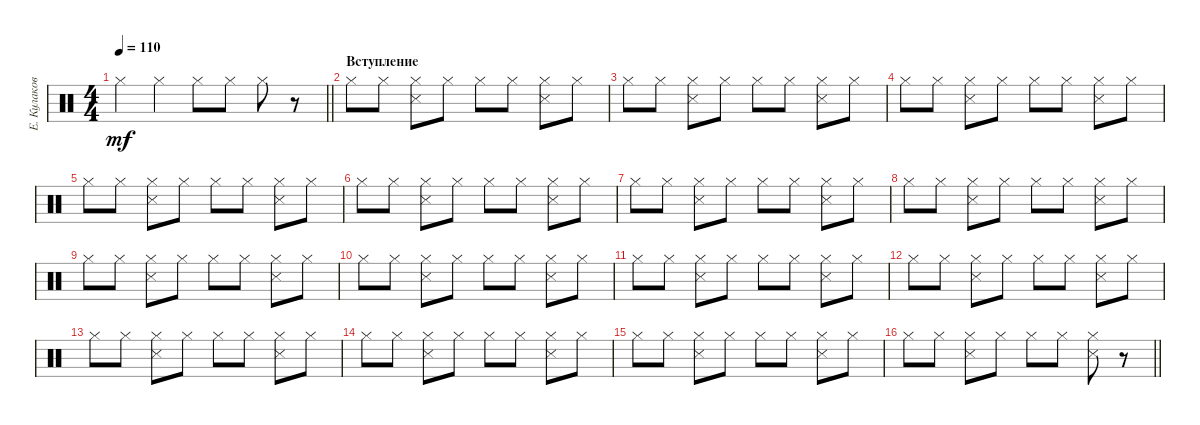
\track ("Е. Кулаков" "Е. Кулаков") {instrument percussion}
\staff {score}
\articulation defaults
\ts (4 4)
\tempo 110
\clef neutral
\barLineRight lightlight
\ks c "Hi-Hat (closed)".4{dy mf} "Hi-Hat (closed)".4 "Hi-Hat (closed)".8 "Hi-Hat (closed)".8 "Hi-Hat (closed)".8
r.8 |
\section ("" "Вступление")
"Hi-Hat (closed)".8 "Hi-Hat (closed)".8 ("Hi-Hat (closed)" "Snare (side stick) 3").8 "Hi-Hat (closed)".8 "Hi-Hat (closed)".8 "Hi-Hat (closed)".8 ("Hi-Hat (closed)" "Snare (side stick) 3").8 "Hi-Hat (closed)".8 |
"Hi-Hat (closed)".8 "Hi-Hat (closed)".8 ("Hi-Hat (closed)" "Snare (side stick) 3").8 "Hi-Hat (closed)".8 "Hi-Hat (closed)".8 "Hi-Hat (closed)".8 ("Hi-Hat (closed)" "Snare (side stick) 3").8 "Hi-Hat (closed)".8 |
"Hi-Hat (closed)".8 "Hi-Hat (closed)".8 ("Hi-Hat (closed)" "Snare (side stick) 3").8 "Hi-Hat (closed)".8 "Hi-Hat (closed)".8 "Hi-Hat (closed)".8 ("Hi-Hat (closed)" "Snare (side stick) 3").8 "Hi-Hat (closed)".8 |
"Hi-Hat (closed)".8 "Hi-Hat (closed)".8 ("Hi-Hat (closed)" "Snare (side stick) 3").8 "Hi-Hat (closed)".8 "Hi-Hat (closed)".8 "Hi-Hat (closed)".8 ("Hi-Hat (closed)" "Snare (side stick) 3").8 "Hi-Hat (closed)".8 |
"Hi-Hat (closed)".8 "Hi-Hat (closed)".8 ("Hi-Hat (closed)" "Snare (side stick) 3").8 "Hi-Hat (closed)".8 "Hi-Hat (closed)".8 "Hi-Hat (closed)".8 ("Hi-Hat (closed)" "Snare (side stick) 3").8 "Hi-Hat (closed)".8 |
"Hi-Hat (closed)".8 "Hi-Hat (closed)".8 ("Hi-Hat (closed)" "Snare (side stick) 3").8 "Hi-Hat (closed)".8 "Hi-Hat (closed)".8 "Hi-Hat (closed)".8 ("Hi-Hat (closed)" "Snare (side stick) 3").8 "Hi-Hat (closed)".8 |
"Hi-Hat (closed)".8 "Hi-Hat (closed)".8 ("Hi-Hat (closed)" "Snare (side stick) 3").8 "Hi-Hat (closed)".8 "Hi-Hat (closed)".8 "Hi-Hat (closed)".8 ("Hi-Hat (closed)" "Snare (side stick) 3").8 "Hi-Hat (closed)".8 |
"Hi-Hat (closed)".8 "Hi-Hat (closed)".8 ("Hi-Hat (closed)" "Snare (side stick) 3").8 "Hi-Hat (closed)".8 "Hi-Hat (closed)".8 "Hi-Hat (closed)".8 ("Hi-Hat (closed)" "Snare (side stick) 3").8 "Hi-Hat (closed)".8 |
"Hi-Hat (closed)".8 "Hi-Hat (closed)".8 ("Hi-Hat (closed)" "Snare (side stick) 3").8 "Hi-Hat (closed)".8 "Hi-Hat (closed)".8 "Hi-Hat (closed)".8 ("Hi-Hat (closed)" "Snare (side stick) 3").8 "Hi-Hat (closed)".8 |
"Hi-Hat (closed)".8 "Hi-Hat (closed)".8 ("Hi-Hat (closed)" "Snare (side stick) 3").8 "Hi-Hat (closed)".8 "Hi-Hat (closed)".8 "Hi-Hat (closed)".8 ("Hi-Hat (closed)" "Snare (side stick) 3").8 "Hi-Hat (closed)".8 |
"Hi-Hat (closed)".8 "Hi-Hat (closed)".8 ("Hi-Hat (closed)" "Snare (side stick) 3").8 "Hi-Hat (closed)".8 "Hi-Hat (closed)".8 "Hi-Hat (closed)".8 ("Hi-Hat (closed)" "Snare (side stick) 3").8 "Hi-Hat (closed)".8 |
"Hi-Hat (closed)".8 "Hi-Hat (closed)".8 ("Hi-Hat (closed)" "Snare (side stick) 3").8 "Hi-Hat (closed)".8 "Hi-Hat (closed)".8 "Hi-Hat (closed)".8 ("Hi-Hat (closed)" "Snare (side stick) 3").8 "Hi-Hat (closed)".8 |
"Hi-Hat (closed)".8 "Hi-Hat (closed)".8 ("Hi-Hat (closed)" "Snare (side stick) 3").8 "Hi-Hat (closed)".8 "Hi-Hat (closed)".8 "Hi-Hat (closed)".8 ("Hi-Hat (closed)" "Snare (side stick) 3").8 "Hi-Hat (closed)".8 |
"Hi-Hat (closed)".8 "Hi-Hat (closed)".8 ("Hi-Hat (closed)" "Snare (side stick) 3").8 "Hi-Hat (closed)".8 "Hi-Hat (closed)".8 "Hi-Hat (closed)".8 ("Hi-Hat (closed)" "Snare (side stick) 3").8 "Hi-Hat (closed)".8 |
\barLineRight lightlight "Hi-Hat (closed)".8 "Hi-Hat (closed)".8
("Hi-Hat (closed)" "Snare (side stick) 3").8 "Hi-Hat (closed)".8 "Hi-Hat (closed)".8 "Hi-Hat (closed)".8 ("Hi-Hat (closed)" "Snare (side stick) 3").8 r.8
